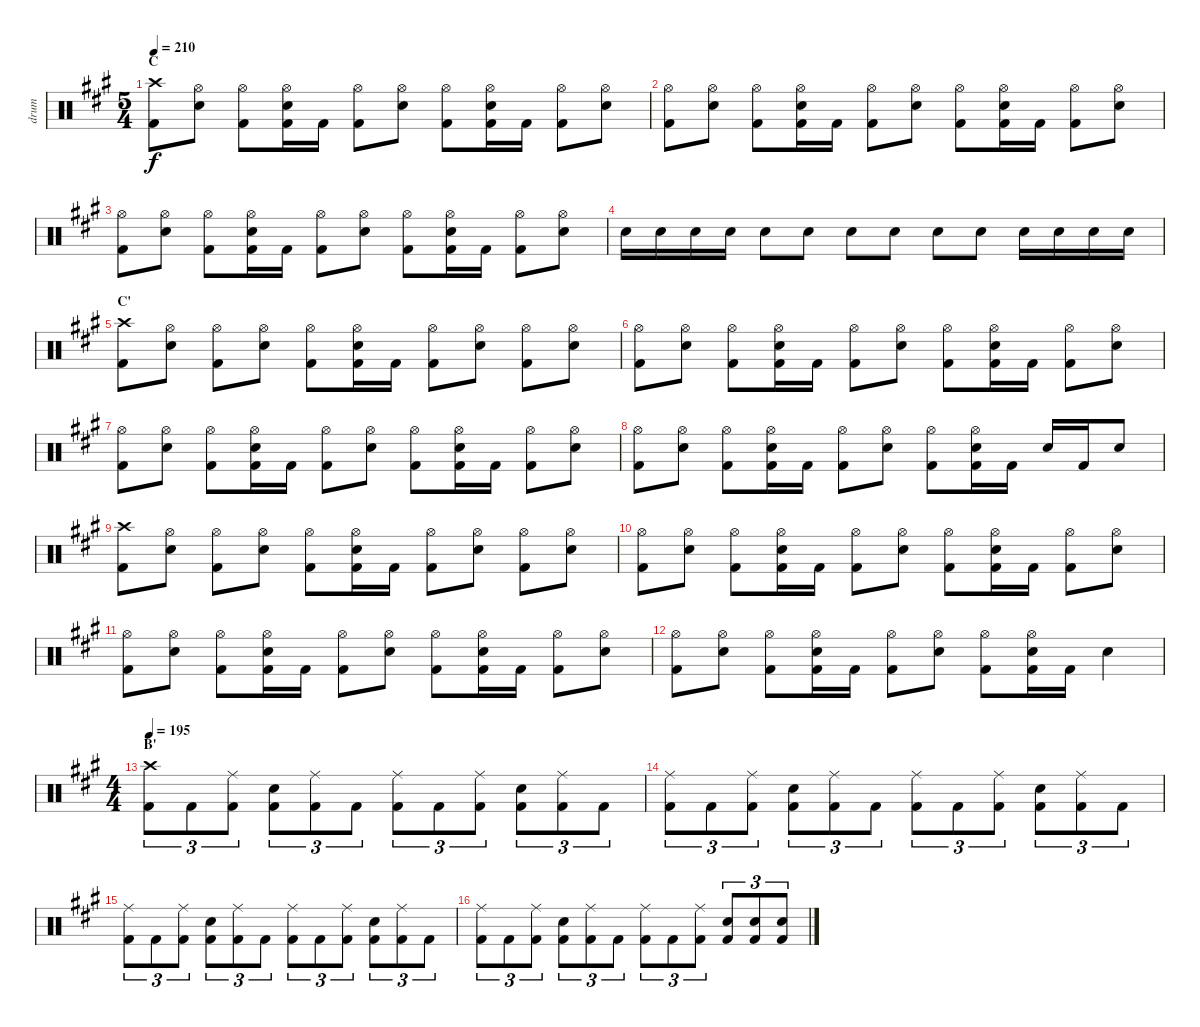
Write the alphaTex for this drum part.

\track ("drum" "drum") {instrument percussion}
\staff {score}
\articulation defaults
\ts (5 4)
\section ("" "C")
\tempo 210
\clef neutral
\ks a
("Crash high (hit)" "Kick (hit) 2").8{dy f} ("Hi-Hat (open)" "Electric Snare (hit)").8 ("Hi-Hat (open)" "Kick (hit) 2").8 ("Hi-Hat (open)" "Electric Snare (hit)" "Kick (hit) 2").16 "Kick (hit) 2".16 ("Hi-Hat (open)" "Kick (hit) 2").8 ("Hi-Hat (open)" "Electric Snare (hit)").8 ("Hi-Hat (open)" "Kick (hit) 2").8 ("Hi-Hat (open)" "Electric Snare (hit)" "Kick (hit) 2").16 "Kick (hit) 2".16 ("Hi-Hat (open)" "Kick (hit) 2").8 ("Hi-Hat (open)" "Electric Snare (hit)").8 |
("Hi-Hat (open)" "Kick (hit) 2").8 ("Hi-Hat (open)" "Electric Snare (hit)").8 ("Hi-Hat (open)" "Kick (hit) 2").8 ("Hi-Hat (open)" "Electric Snare (hit)" "Kick (hit) 2").16 "Kick (hit) 2".16 ("Hi-Hat (open)" "Kick (hit) 2").8 ("Hi-Hat (open)" "Electric Snare (hit)").8 ("Hi-Hat (open)" "Kick (hit) 2").8 ("Hi-Hat (open)" "Electric Snare (hit)" "Kick (hit) 2").16 "Kick (hit) 2".16 ("Hi-Hat (open)" "Kick (hit) 2").8 ("Hi-Hat (open)" "Electric Snare (hit)").8 |
("Hi-Hat (open)" "Kick (hit) 2").8 ("Hi-Hat (open)" "Electric Snare (hit)").8 ("Hi-Hat (open)" "Kick (hit) 2").8 ("Hi-Hat (open)" "Electric Snare (hit)" "Kick (hit) 2").16 "Kick (hit) 2".16 ("Hi-Hat (open)" "Kick (hit) 2").8 ("Hi-Hat (open)" "Electric Snare (hit)").8 ("Hi-Hat (open)" "Kick (hit) 2").8 ("Hi-Hat (open)" "Electric Snare (hit)" "Kick (hit) 2").16 "Kick (hit) 2".16 ("Hi-Hat (open)" "Kick (hit) 2").8 ("Hi-Hat (open)" "Electric Snare (hit)").8 |
"Electric Snare (hit)".16 "Electric Snare (hit)".16 "Electric Snare (hit)".16 "Electric Snare (hit)".16 "Electric Snare (hit)".8 "Electric Snare (hit)".8 "Electric Snare (hit)".8 "Electric Snare (hit)".8 "Electric Snare (hit)".8 "Electric Snare (hit)".8 "Electric Snare (hit)".16 "Electric Snare (hit)".16 "Electric Snare (hit)".16 "Electric Snare (hit)".16 |
\section ("" "C'")
("Crash high (hit)" "Kick (hit) 2").8 ("Hi-Hat (open)" "Electric Snare (hit)").8 ("Hi-Hat (open)" "Kick (hit) 2").8 ("Hi-Hat (open)" "Electric Snare (hit)").8 ("Hi-Hat (open)" "Kick (hit) 2").8 ("Hi-Hat (open)" "Electric Snare (hit)" "Kick (hit) 2").16 "Kick (hit) 2".16 ("Hi-Hat (open)" "Kick (hit) 2").8 ("Hi-Hat (open)" "Electric Snare (hit)").8 ("Hi-Hat (open)" "Kick (hit) 2").8 ("Hi-Hat (open)" "Electric Snare (hit)").8 |
("Hi-Hat (open)" "Kick (hit) 2").8 ("Hi-Hat (open)" "Electric Snare (hit)").8 ("Hi-Hat (open)" "Kick (hit) 2").8 ("Hi-Hat (open)" "Electric Snare (hit)" "Kick (hit) 2").16 "Kick (hit) 2".16 ("Hi-Hat (open)" "Kick (hit) 2").8 ("Hi-Hat (open)" "Electric Snare (hit)").8 ("Hi-Hat (open)" "Kick (hit) 2").8 ("Hi-Hat (open)" "Electric Snare (hit)" "Kick (hit) 2").16 "Kick (hit) 2".16 ("Hi-Hat (open)" "Kick (hit) 2").8 ("Hi-Hat (open)" "Electric Snare (hit)").8 |
("Hi-Hat (open)" "Kick (hit) 2").8 ("Hi-Hat (open)" "Electric Snare (hit)").8 ("Hi-Hat (open)" "Kick (hit) 2").8 ("Hi-Hat (open)" "Electric Snare (hit)" "Kick (hit) 2").16 "Kick (hit) 2".16 ("Hi-Hat (open)" "Kick (hit) 2").8 ("Hi-Hat (open)" "Electric Snare (hit)").8 ("Hi-Hat (open)" "Kick (hit) 2").8 ("Hi-Hat (open)" "Electric Snare (hit)" "Kick (hit) 2").16 "Kick (hit) 2".16 ("Hi-Hat (open)" "Kick (hit) 2").8 ("Hi-Hat (open)" "Electric Snare (hit)").8 |
("Hi-Hat (open)" "Kick (hit) 2").8 ("Hi-Hat (open)" "Electric Snare (hit)").8 ("Hi-Hat (open)" "Kick (hit) 2").8 ("Hi-Hat (open)" "Electric Snare (hit)" "Kick (hit) 2").16 "Kick (hit) 2".16 ("Hi-Hat (open)" "Kick (hit) 2").8 ("Hi-Hat (open)" "Electric Snare (hit)").8 ("Hi-Hat (open)" "Kick (hit) 2").8 ("Hi-Hat (open)" "Electric Snare (hit)" "Kick (hit) 2").16 "Kick (hit) 2".16 "Electric Snare (hit)".16 "Kick (hit) 2".16 "Electric Snare (hit)".8 |
("Crash high (hit)" "Kick (hit) 2").8 ("Hi-Hat (open)" "Electric Snare (hit)").8 ("Hi-Hat (open)" "Kick (hit) 2").8 ("Hi-Hat (open)" "Electric Snare (hit)").8 ("Hi-Hat (open)" "Kick (hit) 2").8 ("Hi-Hat (open)" "Electric Snare (hit)" "Kick (hit) 2").16 "Kick (hit) 2".16 ("Hi-Hat (open)" "Kick (hit) 2").8 ("Hi-Hat (open)" "Electric Snare (hit)").8 ("Hi-Hat (open)" "Kick (hit) 2").8 ("Hi-Hat (open)" "Electric Snare (hit)").8 |
("Hi-Hat (open)" "Kick (hit) 2").8 ("Hi-Hat (open)" "Electric Snare (hit)").8 ("Hi-Hat (open)" "Kick (hit) 2").8 ("Hi-Hat (open)" "Electric Snare (hit)" "Kick (hit) 2").16 "Kick (hit) 2".16 ("Hi-Hat (open)" "Kick (hit) 2").8 ("Hi-Hat (open)" "Electric Snare (hit)").8 ("Hi-Hat (open)" "Kick (hit) 2").8 ("Hi-Hat (open)" "Electric Snare (hit)" "Kick (hit) 2").16 "Kick (hit) 2".16 ("Hi-Hat (open)" "Kick (hit) 2").8 ("Hi-Hat (open)" "Electric Snare (hit)").8 |
("Hi-Hat (open)" "Kick (hit) 2").8 ("Hi-Hat (open)" "Electric Snare (hit)").8 ("Hi-Hat (open)" "Kick (hit) 2").8 ("Hi-Hat (open)" "Electric Snare (hit)" "Kick (hit) 2").16 "Kick (hit) 2".16 ("Hi-Hat (open)" "Kick (hit) 2").8 ("Hi-Hat (open)" "Electric Snare (hit)").8 ("Hi-Hat (open)" "Kick (hit) 2").8 ("Hi-Hat (open)" "Electric Snare (hit)" "Kick (hit) 2").16 "Kick (hit) 2".16 ("Hi-Hat (open)" "Kick (hit) 2").8 ("Hi-Hat (open)" "Electric Snare (hit)").8 |
("Hi-Hat (open)" "Kick (hit) 2").8 ("Hi-Hat (open)" "Electric Snare (hit)").8 ("Hi-Hat (open)" "Kick (hit) 2").8 ("Hi-Hat (open)" "Electric Snare (hit)" "Kick (hit) 2").16 "Kick (hit) 2".16 ("Hi-Hat (open)" "Kick (hit) 2").8 ("Hi-Hat (open)" "Electric Snare (hit)").8 ("Hi-Hat (open)" "Kick (hit) 2").8 ("Hi-Hat (open)" "Electric Snare (hit)" "Kick (hit) 2").16 "Kick (hit) 2".16 "Electric Snare (hit)".4 |
\ts (4 4)
\section ("" "B'")
\tempo 195
("Crash high (hit)" "Kick (hit) 2").8{tu (3 2)} "Kick (hit) 2".8{tu (3 2)} ("Ride (middle)" "Kick (hit) 2").8{tu (3 2)} ("Electric Snare (hit)" "Kick (hit) 2").8{tu (3 2)} ("Ride (middle)" "Kick (hit) 2").8{tu (3 2)} "Kick (hit) 2".8{tu (3 2)} ("Ride (middle)" "Kick (hit) 2").8{tu (3 2)} "Kick (hit) 2".8{tu (3 2)} ("Ride (middle)" "Kick (hit) 2").8{tu (3 2)} ("Electric Snare (hit)" "Kick (hit) 2").8{tu (3 2)} ("Ride (middle)" "Kick (hit) 2").8{tu (3 2)} "Kick (hit) 2".8{tu (3 2)} |
("Ride (middle)" "Kick (hit) 2").8{tu (3 2)} "Kick (hit) 2".8{tu (3 2)} ("Ride (middle)" "Kick (hit) 2").8{tu (3 2)} ("Electric Snare (hit)" "Kick (hit) 2").8{tu (3 2)} ("Ride (middle)" "Kick (hit) 2").8{tu (3 2)} "Kick (hit) 2".8{tu (3 2)} ("Ride (middle)" "Kick (hit) 2").8{tu (3 2)} "Kick (hit) 2".8{tu (3 2)} ("Ride (middle)" "Kick (hit) 2").8{tu (3 2)} ("Electric Snare (hit)" "Kick (hit) 2").8{tu (3 2)} ("Ride (middle)" "Kick (hit) 2").8{tu (3 2)} "Kick (hit) 2".8{tu (3 2)} |
("Ride (middle)" "Kick (hit) 2").8{tu (3 2)} "Kick (hit) 2".8{tu (3 2)} ("Ride (middle)" "Kick (hit) 2").8{tu (3 2)} ("Electric Snare (hit)" "Kick (hit) 2").8{tu (3 2)} ("Ride (middle)" "Kick (hit) 2").8{tu (3 2)} "Kick (hit) 2".8{tu (3 2)} ("Ride (middle)" "Kick (hit) 2").8{tu (3 2)} "Kick (hit) 2".8{tu (3 2)} ("Ride (middle)" "Kick (hit) 2").8{tu (3 2)} ("Electric Snare (hit)" "Kick (hit) 2").8{tu (3 2)} ("Ride (middle)" "Kick (hit) 2").8{tu (3 2)} "Kick (hit) 2".8{tu (3 2)} |
("Ride (middle)" "Kick (hit) 2").8{tu (3 2)} "Kick (hit) 2".8{tu (3 2)} ("Ride (middle)" "Kick (hit) 2").8{tu (3 2)} ("Electric Snare (hit)" "Kick (hit) 2").8{tu (3 2)} ("Ride (middle)" "Kick (hit) 2").8{tu (3 2)} "Kick (hit) 2".8{tu (3 2)} ("Ride (middle)" "Kick (hit) 2").8{tu (3 2)} "Kick (hit) 2".8{tu (3 2)} ("Ride (middle)" "Kick (hit) 2").8{tu (3 2)} ("Electric Snare (hit)" "Kick (hit) 2").8{tu (3 2)} ("Electric Snare (hit)" "Kick (hit) 2").8{tu (3 2)} ("Electric Snare (hit)" "Kick (hit) 2").8{tu (3 2)}
